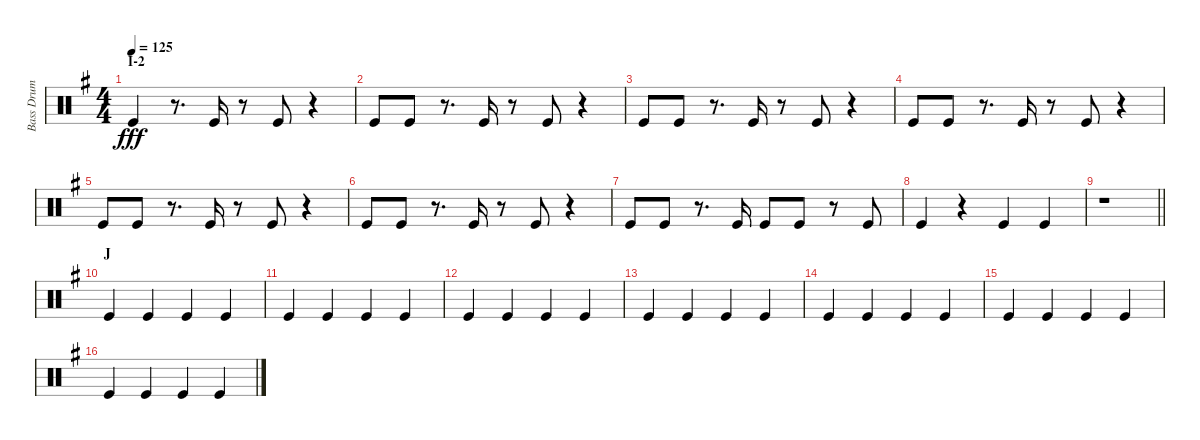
\track ("Bass Drum" "Bass Drum") {instrument percussion}
\staff {score}
\articulation defaults
\ts (4 4)
\section ("" "I-2")
\tempo 125
\clef neutral
\ks g "Kick (hit)".4{dy fff}
r.8{d} "Kick (hit)".16 r.8 "Kick (hit)".8 r.4 |
"Kick (hit)".8 "Kick (hit)".8 r.8{d} "Kick (hit)".16 r.8 "Kick (hit)".8 r.4 |
"Kick (hit)".8 "Kick (hit)".8 r.8{d} "Kick (hit)".16 r.8 "Kick (hit)".8 r.4 |
"Kick (hit)".8 "Kick (hit)".8 r.8{d} "Kick (hit)".16 r.8 "Kick (hit)".8 r.4 |
"Kick (hit)".8 "Kick (hit)".8 r.8{d} "Kick (hit)".16 r.8 "Kick (hit)".8 r.4 |
"Kick (hit)".8 "Kick (hit)".8 r.8{d} "Kick (hit)".16 r.8 "Kick (hit)".8 r.4 |
"Kick (hit)".8 "Kick (hit)".8 r.8{d} "Kick (hit)".16 "Kick (hit)".8 "Kick (hit)".8 r.8 "Kick (hit)".8 |
"Kick (hit)".4 r.4 "Kick (hit)".4 "Kick (hit)".4 |
\barLineRight lightlight
r.1 |
\section ("" "J")
"Kick (hit)".4 "Kick (hit)".4 "Kick (hit)".4 "Kick (hit)".4 |
"Kick (hit)".4 "Kick (hit)".4 "Kick (hit)".4 "Kick (hit)".4 |
"Kick (hit)".4 "Kick (hit)".4 "Kick (hit)".4 "Kick (hit)".4 |
"Kick (hit)".4 "Kick (hit)".4 "Kick (hit)".4 "Kick (hit)".4 |
"Kick (hit)".4 "Kick (hit)".4 "Kick (hit)".4 "Kick (hit)".4 |
"Kick (hit)".4 "Kick (hit)".4 "Kick (hit)".4 "Kick (hit)".4 |
"Kick (hit)".4 "Kick (hit)".4 "Kick (hit)".4 "Kick (hit)".4
